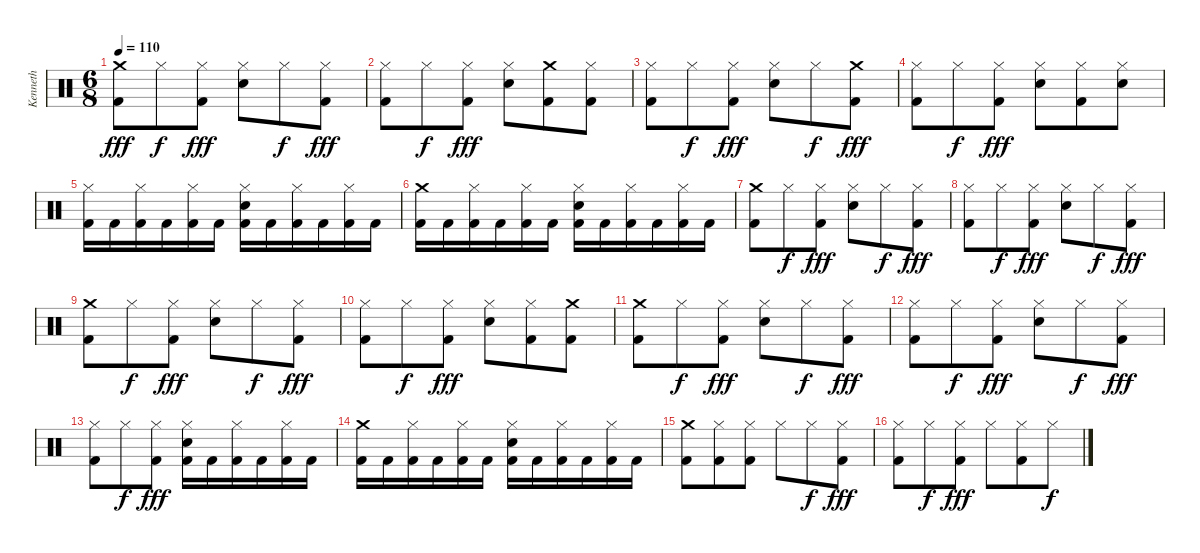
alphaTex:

\track ("Kenneth" "Kenneth") {instrument percussion}
\staff {score}
\articulation defaults
\ts (6 8)
\tempo 110
\clef neutral
\ks c
("Crash medium (hit)" "Kick (hit) 2").8{dy fff} "Hi-Hat (closed)".8{dy f} ("Hi-Hat (closed)" "Kick (hit) 2").8{dy fff} ("Hi-Hat (closed)" "Electric Snare (hit)").8 "Hi-Hat (closed)".8{dy f} ("Hi-Hat (closed)" "Kick (hit) 2").8{dy fff} |
("Hi-Hat (closed)" "Kick (hit) 2").8 "Hi-Hat (closed)".8{dy f} ("Hi-Hat (closed)" "Kick (hit) 2").8{dy fff} ("Hi-Hat (closed)" "Electric Snare (hit)").8 ("Crash medium (hit)" "Kick (hit) 2").8 ("Hi-Hat (closed)" "Kick (hit) 2").8 |
("Hi-Hat (closed)" "Kick (hit) 2").8 "Hi-Hat (closed)".8{dy f} ("Hi-Hat (closed)" "Kick (hit) 2").8{dy fff} ("Hi-Hat (closed)" "Electric Snare (hit)").8 "Hi-Hat (closed)".8{dy f} ("Crash medium (hit)" "Kick (hit) 2").8{dy fff} |
("Hi-Hat (closed)" "Kick (hit) 2").8 "Hi-Hat (closed)".8{dy f} ("Hi-Hat (closed)" "Kick (hit) 2").8{dy fff} ("Hi-Hat (closed)" "Electric Snare (hit)").8 ("Hi-Hat (closed)" "Kick (hit) 2").8 ("Hi-Hat (closed)" "Electric Snare (hit)").8 |
("Hi-Hat (closed)" "Kick (hit) 2").16 "Kick (hit) 2".16 ("Hi-Hat (closed)" "Kick (hit) 2").16 "Kick (hit) 2".16 ("Hi-Hat (closed)" "Kick (hit) 2").16 "Kick (hit) 2".16 ("Hi-Hat (closed)" "Electric Snare (hit)" "Kick (hit) 2").16 "Kick (hit) 2".16 ("Hi-Hat (closed)" "Kick (hit) 2").16 "Kick (hit) 2".16 ("Hi-Hat (closed)" "Kick (hit) 2").16 "Kick (hit) 2".16 |
("Crash medium (hit)" "Kick (hit) 2").16 "Kick (hit) 2".16 ("Hi-Hat (closed)" "Kick (hit) 2").16 "Kick (hit) 2".16 ("Hi-Hat (closed)" "Kick (hit) 2").16 "Kick (hit) 2".16 ("Hi-Hat (closed)" "Electric Snare (hit)" "Kick (hit) 2").16 "Kick (hit) 2".16 ("Hi-Hat (closed)" "Kick (hit) 2").16 "Kick (hit) 2".16 ("Hi-Hat (closed)" "Kick (hit) 2").16 "Kick (hit) 2".16 |
("Crash medium (hit)" "Kick (hit) 2").8 "Hi-Hat (closed)".8{dy f} ("Hi-Hat (closed)" "Kick (hit) 2").8{dy fff} ("Hi-Hat (closed)" "Electric Snare (hit)").8 "Hi-Hat (closed)".8{dy f} ("Hi-Hat (closed)" "Kick (hit) 2").8{dy fff} |
("Hi-Hat (closed)" "Kick (hit) 2").8 "Hi-Hat (closed)".8{dy f} ("Hi-Hat (closed)" "Kick (hit) 2").8{dy fff} ("Hi-Hat (closed)" "Electric Snare (hit)").8 "Hi-Hat (closed)".8{dy f} ("Hi-Hat (closed)" "Kick (hit) 2").8{dy fff} |
("Crash medium (hit)" "Kick (hit) 2").8 "Hi-Hat (closed)".8{dy f} ("Hi-Hat (closed)" "Kick (hit) 2").8{dy fff} ("Hi-Hat (closed)" "Electric Snare (hit)").8 "Hi-Hat (closed)".8{dy f} ("Hi-Hat (closed)" "Kick (hit) 2").8{dy fff} |
("Hi-Hat (closed)" "Kick (hit) 2").8 "Hi-Hat (closed)".8{dy f} ("Hi-Hat (closed)" "Kick (hit) 2").8{dy fff} ("Hi-Hat (closed)" "Electric Snare (hit)").8 ("Hi-Hat (closed)" "Kick (hit) 2").8 ("Crash medium (hit)" "Kick (hit) 2").8 |
("Crash medium (hit)" "Kick (hit) 2").8 "Hi-Hat (closed)".8{dy f} ("Hi-Hat (closed)" "Kick (hit) 2").8{dy fff} ("Hi-Hat (closed)" "Electric Snare (hit)").8 "Hi-Hat (closed)".8{dy f} ("Hi-Hat (closed)" "Kick (hit) 2").8{dy fff} |
("Hi-Hat (closed)" "Kick (hit) 2").8 "Hi-Hat (closed)".8{dy f} ("Hi-Hat (closed)" "Kick (hit) 2").8{dy fff} ("Hi-Hat (closed)" "Electric Snare (hit)").8 "Hi-Hat (closed)".8{dy f} ("Hi-Hat (closed)" "Kick (hit) 2").8{dy fff} |
("Hi-Hat (closed)" "Kick (hit) 2").8 "Hi-Hat (closed)".8{dy f} ("Hi-Hat (closed)" "Kick (hit) 2").8{dy fff} ("Hi-Hat (closed)" "Electric Snare (hit)" "Kick (hit) 2").16 "Kick (hit) 2".16 ("Hi-Hat (closed)" "Kick (hit) 2").16 "Kick (hit) 2".16 ("Hi-Hat (closed)" "Kick (hit) 2").16 "Kick (hit) 2".16 |
("Crash medium (hit)" "Kick (hit) 2").16 "Kick (hit) 2".16 ("Hi-Hat (closed)" "Kick (hit) 2").16 "Kick (hit) 2".16 ("Hi-Hat (closed)" "Kick (hit) 2").16 "Kick (hit) 2".16 ("Hi-Hat (closed)" "Electric Snare (hit)" "Kick (hit) 2").16 "Kick (hit) 2".16 ("Hi-Hat (closed)" "Kick (hit) 2").16 "Kick (hit) 2".16 ("Hi-Hat (closed)" "Kick (hit) 2").16 "Kick (hit) 2".16 |
("Crash medium (hit)" "Kick (hit) 2").8 ("Hi-Hat (closed)" "Kick (hit) 2").8 ("Hi-Hat (closed)" "Kick (hit) 2").8 "Hi-Hat (closed)".8 "Hi-Hat (closed)".8{dy f} ("Hi-Hat (closed)" "Kick (hit) 2").8{dy fff} |
("Hi-Hat (closed)" "Kick (hit) 2").8 "Hi-Hat (closed)".8{dy f} ("Hi-Hat (closed)" "Kick (hit) 2").8{dy fff} "Hi-Hat (closed)".8 ("Hi-Hat (closed)" "Kick (hit) 2").8 "Hi-Hat (closed)".8{dy f}
